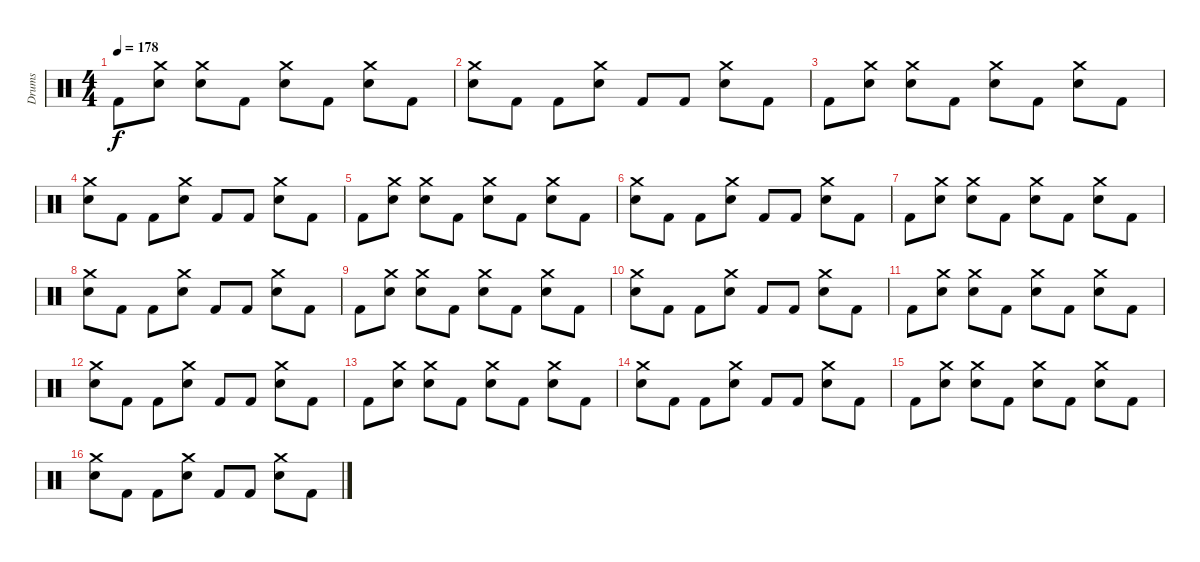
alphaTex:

\track ("Drums" "Drums") {instrument percussion}
\staff {score}
\articulation defaults
\ts (4 4)
\tempo 178
\clef neutral
\ks c "Kick (hit) 2".8{dy f}
("Crash medium (hit)" "Electric Snare (hit)").8 ("Crash medium (hit)" "Electric Snare (hit)").8 "Kick (hit) 2".8 ("Crash medium (hit)" "Electric Snare (hit)").8 "Kick (hit) 2".8 ("Crash medium (hit)" "Electric Snare (hit)").8 "Kick (hit) 2".8 |
("Crash medium (hit)" "Electric Snare (hit)").8 "Kick (hit) 2".8 "Kick (hit) 2".8 ("Crash medium (hit)" "Electric Snare (hit)").8 "Kick (hit) 2".8 "Kick (hit) 2".8 ("Crash medium (hit)" "Electric Snare (hit)").8 "Kick (hit) 2".8 |
"Kick (hit) 2".8 ("Crash medium (hit)" "Electric Snare (hit)").8 ("Crash medium (hit)" "Electric Snare (hit)").8 "Kick (hit) 2".8 ("Crash medium (hit)" "Electric Snare (hit)").8 "Kick (hit) 2".8 ("Crash medium (hit)" "Electric Snare (hit)").8 "Kick (hit) 2".8 |
("Crash medium (hit)" "Electric Snare (hit)").8 "Kick (hit) 2".8 "Kick (hit) 2".8 ("Crash medium (hit)" "Electric Snare (hit)").8 "Kick (hit) 2".8 "Kick (hit) 2".8 ("Crash medium (hit)" "Electric Snare (hit)").8 "Kick (hit) 2".8 |
"Kick (hit) 2".8 ("Crash medium (hit)" "Electric Snare (hit)").8 ("Crash medium (hit)" "Electric Snare (hit)").8 "Kick (hit) 2".8 ("Crash medium (hit)" "Electric Snare (hit)").8 "Kick (hit) 2".8 ("Crash medium (hit)" "Electric Snare (hit)").8 "Kick (hit) 2".8 |
("Crash medium (hit)" "Electric Snare (hit)").8 "Kick (hit) 2".8 "Kick (hit) 2".8 ("Crash medium (hit)" "Electric Snare (hit)").8 "Kick (hit) 2".8 "Kick (hit) 2".8 ("Crash medium (hit)" "Electric Snare (hit)").8 "Kick (hit) 2".8 |
"Kick (hit) 2".8 ("Crash medium (hit)" "Electric Snare (hit)").8 ("Crash medium (hit)" "Electric Snare (hit)").8 "Kick (hit) 2".8 ("Crash medium (hit)" "Electric Snare (hit)").8 "Kick (hit) 2".8 ("Crash medium (hit)" "Electric Snare (hit)").8 "Kick (hit) 2".8 |
("Crash medium (hit)" "Electric Snare (hit)").8 "Kick (hit) 2".8 "Kick (hit) 2".8 ("Crash medium (hit)" "Electric Snare (hit)").8 "Kick (hit) 2".8 "Kick (hit) 2".8 ("Crash medium (hit)" "Electric Snare (hit)").8 "Kick (hit) 2".8 |
"Kick (hit) 2".8 ("Crash medium (hit)" "Electric Snare (hit)").8 ("Crash medium (hit)" "Electric Snare (hit)").8 "Kick (hit) 2".8 ("Crash medium (hit)" "Electric Snare (hit)").8 "Kick (hit) 2".8 ("Crash medium (hit)" "Electric Snare (hit)").8 "Kick (hit) 2".8 |
("Crash medium (hit)" "Electric Snare (hit)").8 "Kick (hit) 2".8 "Kick (hit) 2".8 ("Crash medium (hit)" "Electric Snare (hit)").8 "Kick (hit) 2".8 "Kick (hit) 2".8 ("Crash medium (hit)" "Electric Snare (hit)").8 "Kick (hit) 2".8 |
"Kick (hit) 2".8 ("Crash medium (hit)" "Electric Snare (hit)").8 ("Crash medium (hit)" "Electric Snare (hit)").8 "Kick (hit) 2".8 ("Crash medium (hit)" "Electric Snare (hit)").8 "Kick (hit) 2".8 ("Crash medium (hit)" "Electric Snare (hit)").8 "Kick (hit) 2".8 |
("Crash medium (hit)" "Electric Snare (hit)").8 "Kick (hit) 2".8 "Kick (hit) 2".8 ("Crash medium (hit)" "Electric Snare (hit)").8 "Kick (hit) 2".8 "Kick (hit) 2".8 ("Crash medium (hit)" "Electric Snare (hit)").8 "Kick (hit) 2".8 |
"Kick (hit) 2".8 ("Crash medium (hit)" "Electric Snare (hit)").8 ("Crash medium (hit)" "Electric Snare (hit)").8 "Kick (hit) 2".8 ("Crash medium (hit)" "Electric Snare (hit)").8 "Kick (hit) 2".8 ("Crash medium (hit)" "Electric Snare (hit)").8 "Kick (hit) 2".8 |
("Crash medium (hit)" "Electric Snare (hit)").8 "Kick (hit) 2".8 "Kick (hit) 2".8 ("Crash medium (hit)" "Electric Snare (hit)").8 "Kick (hit) 2".8 "Kick (hit) 2".8 ("Crash medium (hit)" "Electric Snare (hit)").8 "Kick (hit) 2".8 |
"Kick (hit) 2".8 ("Crash medium (hit)" "Electric Snare (hit)").8 ("Crash medium (hit)" "Electric Snare (hit)").8 "Kick (hit) 2".8 ("Crash medium (hit)" "Electric Snare (hit)").8 "Kick (hit) 2".8 ("Crash medium (hit)" "Electric Snare (hit)").8 "Kick (hit) 2".8 |
("Crash medium (hit)" "Electric Snare (hit)").8 "Kick (hit) 2".8 "Kick (hit) 2".8 ("Crash medium (hit)" "Electric Snare (hit)").8 "Kick (hit) 2".8 "Kick (hit) 2".8 ("Crash medium (hit)" "Electric Snare (hit)").8 "Kick (hit) 2".8
